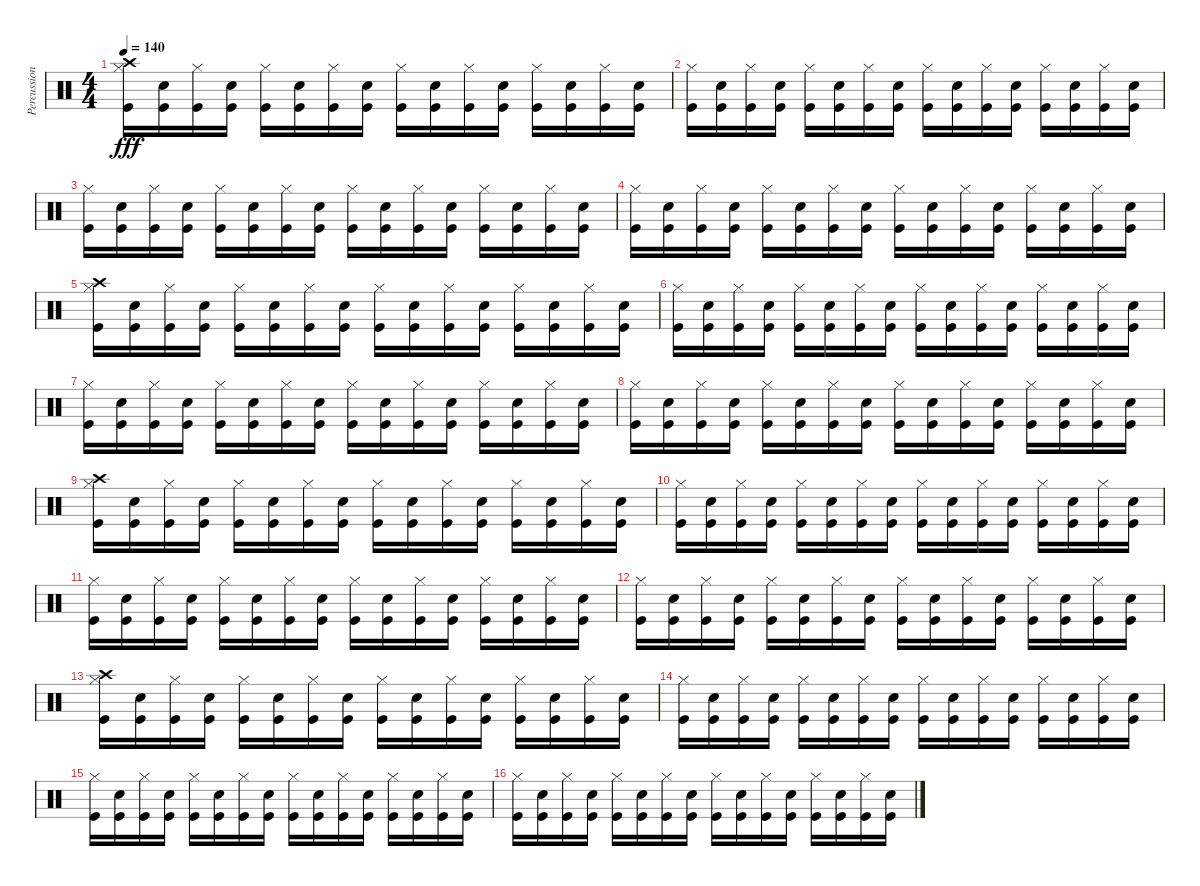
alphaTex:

\track ("Percussion" "Percussion") {instrument percussion}
\staff {score}
\articulation defaults
\ts (4 4)
\tempo 140
\clef neutral
\ks c
("Crash high (hit)" "Hi-Hat (closed)" "Kick (hit)").16{dy fff} ("Snare (hit) 2" "Kick (hit)").16 ("Hi-Hat (closed)" "Kick (hit)").16 ("Snare (hit) 2" "Kick (hit)").16 ("Hi-Hat (closed)" "Kick (hit)").16 ("Snare (hit) 2" "Kick (hit)").16 ("Hi-Hat (closed)" "Kick (hit)").16 ("Snare (hit) 2" "Kick (hit)").16 ("Hi-Hat (closed)" "Kick (hit)").16 ("Snare (hit) 2" "Kick (hit)").16 ("Hi-Hat (closed)" "Kick (hit)").16 ("Snare (hit) 2" "Kick (hit)").16 ("Hi-Hat (closed)" "Kick (hit)").16 ("Snare (hit) 2" "Kick (hit)").16 ("Hi-Hat (closed)" "Kick (hit)").16 ("Snare (hit) 2" "Kick (hit)").16 |
("Hi-Hat (closed)" "Kick (hit)").16 ("Snare (hit) 2" "Kick (hit)").16 ("Hi-Hat (closed)" "Kick (hit)").16 ("Snare (hit) 2" "Kick (hit)").16 ("Hi-Hat (closed)" "Kick (hit)").16 ("Snare (hit) 2" "Kick (hit)").16 ("Hi-Hat (closed)" "Kick (hit)").16 ("Snare (hit) 2" "Kick (hit)").16 ("Hi-Hat (closed)" "Kick (hit)").16 ("Snare (hit) 2" "Kick (hit)").16 ("Hi-Hat (closed)" "Kick (hit)").16 ("Snare (hit) 2" "Kick (hit)").16 ("Hi-Hat (closed)" "Kick (hit)").16 ("Snare (hit) 2" "Kick (hit)").16 ("Hi-Hat (closed)" "Kick (hit)").16 ("Snare (hit) 2" "Kick (hit)").16 |
("Hi-Hat (closed)" "Kick (hit)").16 ("Snare (hit) 2" "Kick (hit)").16 ("Hi-Hat (closed)" "Kick (hit)").16 ("Snare (hit) 2" "Kick (hit)").16 ("Hi-Hat (closed)" "Kick (hit)").16 ("Snare (hit) 2" "Kick (hit)").16 ("Hi-Hat (closed)" "Kick (hit)").16 ("Snare (hit) 2" "Kick (hit)").16 ("Hi-Hat (closed)" "Kick (hit)").16 ("Snare (hit) 2" "Kick (hit)").16 ("Hi-Hat (closed)" "Kick (hit)").16 ("Snare (hit) 2" "Kick (hit)").16 ("Hi-Hat (closed)" "Kick (hit)").16 ("Snare (hit) 2" "Kick (hit)").16 ("Hi-Hat (closed)" "Kick (hit)").16 ("Snare (hit) 2" "Kick (hit)").16 |
("Hi-Hat (closed)" "Kick (hit)").16 ("Snare (hit) 2" "Kick (hit)").16 ("Hi-Hat (closed)" "Kick (hit)").16 ("Snare (hit) 2" "Kick (hit)").16 ("Hi-Hat (closed)" "Kick (hit)").16 ("Snare (hit) 2" "Kick (hit)").16 ("Hi-Hat (closed)" "Kick (hit)").16 ("Snare (hit) 2" "Kick (hit)").16 ("Hi-Hat (closed)" "Kick (hit)").16 ("Snare (hit) 2" "Kick (hit)").16 ("Hi-Hat (closed)" "Kick (hit)").16 ("Snare (hit) 2" "Kick (hit)").16 ("Hi-Hat (closed)" "Kick (hit)").16 ("Snare (hit) 2" "Kick (hit)").16 ("Hi-Hat (closed)" "Kick (hit)").16 ("Snare (hit) 2" "Kick (hit)").16 |
("Crash high (hit)" "Hi-Hat (closed)" "Kick (hit)").16 ("Snare (hit) 2" "Kick (hit)").16 ("Hi-Hat (closed)" "Kick (hit)").16 ("Snare (hit) 2" "Kick (hit)").16 ("Hi-Hat (closed)" "Kick (hit)").16 ("Snare (hit) 2" "Kick (hit)").16 ("Hi-Hat (closed)" "Kick (hit)").16 ("Snare (hit) 2" "Kick (hit)").16 ("Hi-Hat (closed)" "Kick (hit)").16 ("Snare (hit) 2" "Kick (hit)").16 ("Hi-Hat (closed)" "Kick (hit)").16 ("Snare (hit) 2" "Kick (hit)").16 ("Hi-Hat (closed)" "Kick (hit)").16 ("Snare (hit) 2" "Kick (hit)").16 ("Hi-Hat (closed)" "Kick (hit)").16 ("Snare (hit) 2" "Kick (hit)").16 |
("Hi-Hat (closed)" "Kick (hit)").16 ("Snare (hit) 2" "Kick (hit)").16 ("Hi-Hat (closed)" "Kick (hit)").16 ("Snare (hit) 2" "Kick (hit)").16 ("Hi-Hat (closed)" "Kick (hit)").16 ("Snare (hit) 2" "Kick (hit)").16 ("Hi-Hat (closed)" "Kick (hit)").16 ("Snare (hit) 2" "Kick (hit)").16 ("Hi-Hat (closed)" "Kick (hit)").16 ("Snare (hit) 2" "Kick (hit)").16 ("Hi-Hat (closed)" "Kick (hit)").16 ("Snare (hit) 2" "Kick (hit)").16 ("Hi-Hat (closed)" "Kick (hit)").16 ("Snare (hit) 2" "Kick (hit)").16 ("Hi-Hat (closed)" "Kick (hit)").16 ("Snare (hit) 2" "Kick (hit)").16 |
("Hi-Hat (closed)" "Kick (hit)").16 ("Snare (hit) 2" "Kick (hit)").16 ("Hi-Hat (closed)" "Kick (hit)").16 ("Snare (hit) 2" "Kick (hit)").16 ("Hi-Hat (closed)" "Kick (hit)").16 ("Snare (hit) 2" "Kick (hit)").16 ("Hi-Hat (closed)" "Kick (hit)").16 ("Snare (hit) 2" "Kick (hit)").16 ("Hi-Hat (closed)" "Kick (hit)").16 ("Snare (hit) 2" "Kick (hit)").16 ("Hi-Hat (closed)" "Kick (hit)").16 ("Snare (hit) 2" "Kick (hit)").16 ("Hi-Hat (closed)" "Kick (hit)").16 ("Snare (hit) 2" "Kick (hit)").16 ("Hi-Hat (closed)" "Kick (hit)").16 ("Snare (hit) 2" "Kick (hit)").16 |
("Hi-Hat (closed)" "Kick (hit)").16 ("Snare (hit) 2" "Kick (hit)").16 ("Hi-Hat (closed)" "Kick (hit)").16 ("Snare (hit) 2" "Kick (hit)").16 ("Hi-Hat (closed)" "Kick (hit)").16 ("Snare (hit) 2" "Kick (hit)").16 ("Hi-Hat (closed)" "Kick (hit)").16 ("Snare (hit) 2" "Kick (hit)").16 ("Hi-Hat (closed)" "Kick (hit)").16 ("Snare (hit) 2" "Kick (hit)").16 ("Hi-Hat (closed)" "Kick (hit)").16 ("Snare (hit) 2" "Kick (hit)").16 ("Hi-Hat (closed)" "Kick (hit)").16 ("Snare (hit) 2" "Kick (hit)").16 ("Hi-Hat (closed)" "Kick (hit)").16 ("Snare (hit) 2" "Kick (hit)").16 |
("Crash high (hit)" "Hi-Hat (closed)" "Kick (hit)").16 ("Snare (hit) 2" "Kick (hit)").16 ("Hi-Hat (closed)" "Kick (hit)").16 ("Snare (hit) 2" "Kick (hit)").16 ("Hi-Hat (closed)" "Kick (hit)").16 ("Snare (hit) 2" "Kick (hit)").16 ("Hi-Hat (closed)" "Kick (hit)").16 ("Snare (hit) 2" "Kick (hit)").16 ("Hi-Hat (closed)" "Kick (hit)").16 ("Snare (hit) 2" "Kick (hit)").16 ("Hi-Hat (closed)" "Kick (hit)").16 ("Snare (hit) 2" "Kick (hit)").16 ("Hi-Hat (closed)" "Kick (hit)").16 ("Snare (hit) 2" "Kick (hit)").16 ("Hi-Hat (closed)" "Kick (hit)").16 ("Snare (hit) 2" "Kick (hit)").16 |
("Hi-Hat (closed)" "Kick (hit)").16 ("Snare (hit) 2" "Kick (hit)").16 ("Hi-Hat (closed)" "Kick (hit)").16 ("Snare (hit) 2" "Kick (hit)").16 ("Hi-Hat (closed)" "Kick (hit)").16 ("Snare (hit) 2" "Kick (hit)").16 ("Hi-Hat (closed)" "Kick (hit)").16 ("Snare (hit) 2" "Kick (hit)").16 ("Hi-Hat (closed)" "Kick (hit)").16 ("Snare (hit) 2" "Kick (hit)").16 ("Hi-Hat (closed)" "Kick (hit)").16 ("Snare (hit) 2" "Kick (hit)").16 ("Hi-Hat (closed)" "Kick (hit)").16 ("Snare (hit) 2" "Kick (hit)").16 ("Hi-Hat (closed)" "Kick (hit)").16 ("Snare (hit) 2" "Kick (hit)").16 |
("Hi-Hat (closed)" "Kick (hit)").16 ("Snare (hit) 2" "Kick (hit)").16 ("Hi-Hat (closed)" "Kick (hit)").16 ("Snare (hit) 2" "Kick (hit)").16 ("Hi-Hat (closed)" "Kick (hit)").16 ("Snare (hit) 2" "Kick (hit)").16 ("Hi-Hat (closed)" "Kick (hit)").16 ("Snare (hit) 2" "Kick (hit)").16 ("Hi-Hat (closed)" "Kick (hit)").16 ("Snare (hit) 2" "Kick (hit)").16 ("Hi-Hat (closed)" "Kick (hit)").16 ("Snare (hit) 2" "Kick (hit)").16 ("Hi-Hat (closed)" "Kick (hit)").16 ("Snare (hit) 2" "Kick (hit)").16 ("Hi-Hat (closed)" "Kick (hit)").16 ("Snare (hit) 2" "Kick (hit)").16 |
("Hi-Hat (closed)" "Kick (hit)").16 ("Snare (hit) 2" "Kick (hit)").16 ("Hi-Hat (closed)" "Kick (hit)").16 ("Snare (hit) 2" "Kick (hit)").16 ("Hi-Hat (closed)" "Kick (hit)").16 ("Snare (hit) 2" "Kick (hit)").16 ("Hi-Hat (closed)" "Kick (hit)").16 ("Snare (hit) 2" "Kick (hit)").16 ("Hi-Hat (closed)" "Kick (hit)").16 ("Snare (hit) 2" "Kick (hit)").16 ("Hi-Hat (closed)" "Kick (hit)").16 ("Snare (hit) 2" "Kick (hit)").16 ("Hi-Hat (closed)" "Kick (hit)").16 ("Snare (hit) 2" "Kick (hit)").16 ("Hi-Hat (closed)" "Kick (hit)").16 ("Snare (hit) 2" "Kick (hit)").16 |
("Crash high (hit)" "Hi-Hat (closed)" "Kick (hit)").16 ("Snare (hit) 2" "Kick (hit)").16 ("Hi-Hat (closed)" "Kick (hit)").16 ("Snare (hit) 2" "Kick (hit)").16 ("Hi-Hat (closed)" "Kick (hit)").16 ("Snare (hit) 2" "Kick (hit)").16 ("Hi-Hat (closed)" "Kick (hit)").16 ("Snare (hit) 2" "Kick (hit)").16 ("Hi-Hat (closed)" "Kick (hit)").16 ("Snare (hit) 2" "Kick (hit)").16 ("Hi-Hat (closed)" "Kick (hit)").16 ("Snare (hit) 2" "Kick (hit)").16 ("Hi-Hat (closed)" "Kick (hit)").16 ("Snare (hit) 2" "Kick (hit)").16 ("Hi-Hat (closed)" "Kick (hit)").16 ("Snare (hit) 2" "Kick (hit)").16 |
("Hi-Hat (closed)" "Kick (hit)").16 ("Snare (hit) 2" "Kick (hit)").16 ("Hi-Hat (closed)" "Kick (hit)").16 ("Snare (hit) 2" "Kick (hit)").16 ("Hi-Hat (closed)" "Kick (hit)").16 ("Snare (hit) 2" "Kick (hit)").16 ("Hi-Hat (closed)" "Kick (hit)").16 ("Snare (hit) 2" "Kick (hit)").16 ("Hi-Hat (closed)" "Kick (hit)").16 ("Snare (hit) 2" "Kick (hit)").16 ("Hi-Hat (closed)" "Kick (hit)").16 ("Snare (hit) 2" "Kick (hit)").16 ("Hi-Hat (closed)" "Kick (hit)").16 ("Snare (hit) 2" "Kick (hit)").16 ("Hi-Hat (closed)" "Kick (hit)").16 ("Snare (hit) 2" "Kick (hit)").16 |
("Hi-Hat (closed)" "Kick (hit)").16 ("Snare (hit) 2" "Kick (hit)").16 ("Hi-Hat (closed)" "Kick (hit)").16 ("Snare (hit) 2" "Kick (hit)").16 ("Hi-Hat (closed)" "Kick (hit)").16 ("Snare (hit) 2" "Kick (hit)").16 ("Hi-Hat (closed)" "Kick (hit)").16 ("Snare (hit) 2" "Kick (hit)").16 ("Hi-Hat (closed)" "Kick (hit)").16 ("Snare (hit) 2" "Kick (hit)").16 ("Hi-Hat (closed)" "Kick (hit)").16 ("Snare (hit) 2" "Kick (hit)").16 ("Hi-Hat (closed)" "Kick (hit)").16 ("Snare (hit) 2" "Kick (hit)").16 ("Hi-Hat (closed)" "Kick (hit)").16 ("Snare (hit) 2" "Kick (hit)").16 |
("Hi-Hat (closed)" "Kick (hit)").16 ("Snare (hit) 2" "Kick (hit)").16 ("Hi-Hat (closed)" "Kick (hit)").16 ("Snare (hit) 2" "Kick (hit)").16 ("Hi-Hat (closed)" "Kick (hit)").16 ("Snare (hit) 2" "Kick (hit)").16 ("Hi-Hat (closed)" "Kick (hit)").16 ("Snare (hit) 2" "Kick (hit)").16 ("Hi-Hat (closed)" "Kick (hit)").16 ("Snare (hit) 2" "Kick (hit)").16 ("Hi-Hat (closed)" "Kick (hit)").16 ("Snare (hit) 2" "Kick (hit)").16 ("Hi-Hat (closed)" "Kick (hit)").16 ("Snare (hit) 2" "Kick (hit)").16 ("Hi-Hat (closed)" "Kick (hit)").16 ("Snare (hit) 2" "Kick (hit)").16
